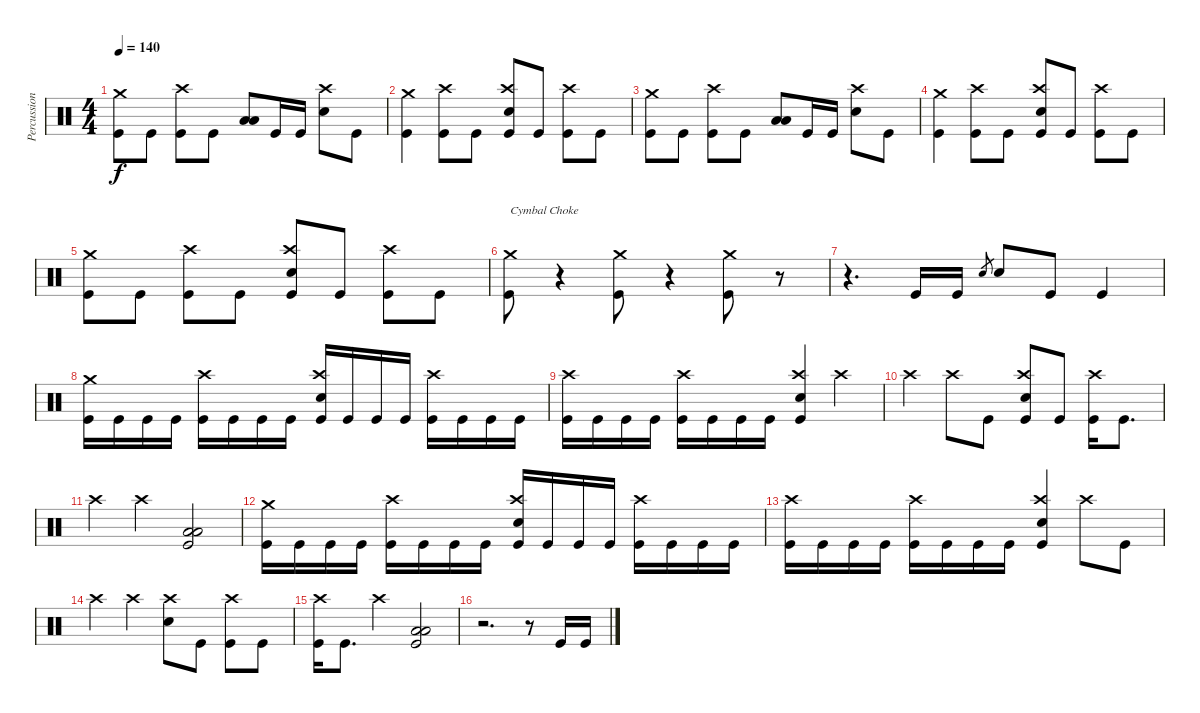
\track ("Percussion" "Percussion") {instrument percussion}
\staff {score}
\articulation defaults
\ts (4 4)
\tempo 140
\clef neutral
\ks c
("Crash medium (hit)" "Kick (hit)").8{dy f} "Kick (hit)".8 ("Crash high (hit)" "Kick (hit)").8 "Kick (hit)".8 ("Low Floor Tom (hit)" "Low Floor Tom (hit)").8 "Kick (hit)".16 "Kick (hit)".16 ("Crash high (hit)" "Electric Snare (hit)").8 "Kick (hit)".8 |
("Crash medium (hit)" "Kick (hit)").4 ("Crash high (hit)" "Kick (hit)").8 "Kick (hit)".8 ("Crash high (hit)" "Electric Snare (hit)" "Kick (hit)").8 "Kick (hit)".8 ("Crash high (hit)" "Kick (hit)").8 "Kick (hit)".8 |
("Crash medium (hit)" "Kick (hit)").8 "Kick (hit)".8 ("Crash high (hit)" "Kick (hit)").8 "Kick (hit)".8 ("Low Floor Tom (hit)" "Low Floor Tom (hit)").8 "Kick (hit)".16 "Kick (hit)".16 ("Crash high (hit)" "Electric Snare (hit)").8 "Kick (hit)".8 |
("Crash medium (hit)" "Kick (hit)").4 ("Crash high (hit)" "Kick (hit)").8 "Kick (hit)".8 ("Crash high (hit)" "Electric Snare (hit)" "Kick (hit)").8 "Kick (hit)".8 ("Crash high (hit)" "Kick (hit)").8 "Kick (hit)".8 |
("Crash medium (hit)" "Kick (hit)").8 "Kick (hit)".8 ("Crash high (hit)" "Kick (hit)").8 "Kick (hit)".8 ("Crash high (hit)" "Electric Snare (hit)" "Kick (hit)").8 "Kick (hit)".8 ("Crash high (hit)" "Kick (hit)").8 "Kick (hit)".8 |
("Crash medium (hit)" "Kick (hit)").8{txt "Cymbal Choke"} r.4{volume 0} ("Crash medium (hit)" "Kick (hit)").8{volume 16} r.4{volume 0} ("Crash medium (hit)" "Kick (hit)").8{volume 16} r.8{volume 0} |
r.4{d} "Kick (hit)".16{volume 16} "Kick (hit)".16 "Electric Snare (hit)".8{gr} "Electric Snare (hit)".8 "Kick (hit)".8 "Kick (hit)".4 |
("Crash medium (hit)" "Kick (hit)").16 "Kick (hit)".16 "Kick (hit)".16 "Kick (hit)".16 ("Crash high (hit)" "Kick (hit)").16 "Kick (hit)".16 "Kick (hit)".16 "Kick (hit)".16 ("Crash high (hit)" "Electric Snare (hit)" "Kick (hit)").16 "Kick (hit)".16 "Kick (hit)".16 "Kick (hit)".16 ("Crash high (hit)" "Kick (hit)").16 "Kick (hit)".16 "Kick (hit)".16 "Kick (hit)".16 |
("Crash high (hit)" "Kick (hit)").16 "Kick (hit)".16 "Kick (hit)".16 "Kick (hit)".16 ("Crash high (hit)" "Kick (hit)").16 "Kick (hit)".16 "Kick (hit)".16 "Kick (hit)".16 ("Crash high (hit)" "Electric Snare (hit)" "Kick (hit)").4 "Crash high (hit)".4 |
"Crash high (hit)".4 "Crash high (hit)".8 "Kick (hit)".8 ("Crash high (hit)" "Electric Snare (hit)" "Kick (hit)").8 "Kick (hit)".8 ("Crash high (hit)" "Kick (hit)").16 "Kick (hit)".8{d} |
"Crash high (hit)".4 "Crash high (hit)".4 ("Low Floor Tom (hit)" "Low Floor Tom (hit)" "Kick (hit)").2 |
("Crash medium (hit)" "Kick (hit)").16 "Kick (hit)".16 "Kick (hit)".16 "Kick (hit)".16 ("Crash high (hit)" "Kick (hit)").16 "Kick (hit)".16 "Kick (hit)".16 "Kick (hit)".16 ("Crash high (hit)" "Electric Snare (hit)" "Kick (hit)").16 "Kick (hit)".16 "Kick (hit)".16 "Kick (hit)".16 ("Crash high (hit)" "Kick (hit)").16 "Kick (hit)".16 "Kick (hit)".16 "Kick (hit)".16 |
("Crash high (hit)" "Kick (hit)").16 "Kick (hit)".16 "Kick (hit)".16 "Kick (hit)".16 ("Crash high (hit)" "Kick (hit)").16 "Kick (hit)".16 "Kick (hit)".16 "Kick (hit)".16 ("Crash high (hit)" "Electric Snare (hit)" "Kick (hit)").4 "Crash high (hit)".8 "Kick (hit)".8 |
"Crash high (hit)".4 "Crash high (hit)".4 ("Crash high (hit)" "Electric Snare (hit)").8 "Kick (hit)".8 ("Crash high (hit)" "Kick (hit)").8 "Kick (hit)".8 |
("Crash high (hit)" "Kick (hit)").16 "Kick (hit)".8{d} "Crash high (hit)".4 ("Low Floor Tom (hit)" "Low Floor Tom (hit)" "Kick (hit)").2 |
r.2{d} r.8 "Kick (hit)".16 "Kick (hit)".16
